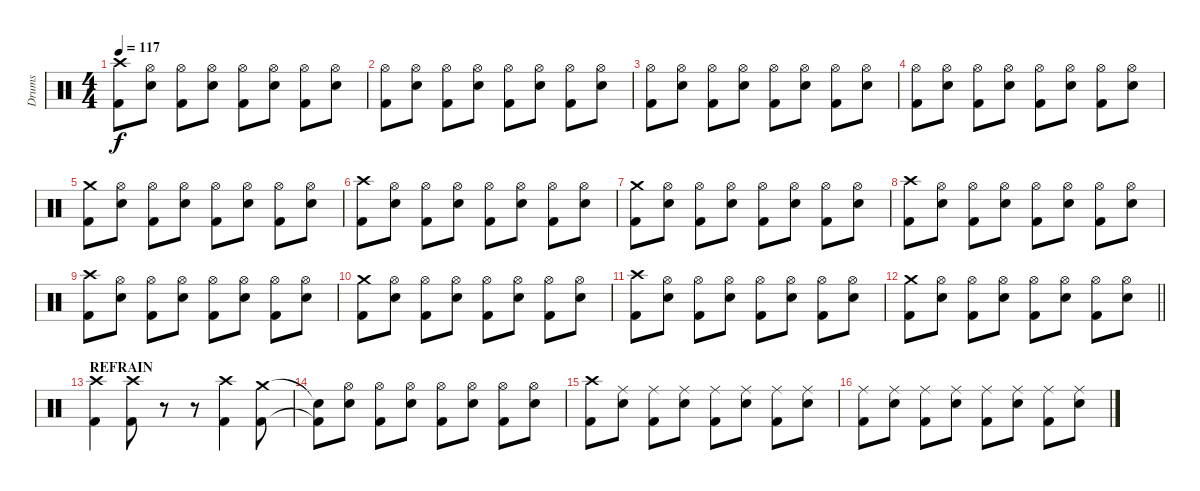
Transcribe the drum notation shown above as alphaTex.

\track ("Drums" "Drums") {instrument percussion}
\staff {score}
\articulation defaults
\ts (4 4)
\tempo 117
\clef neutral
\ks c
("Crash high (hit)" "Kick (hit) 2").8{dy f} ("Hi-Hat (open)" "Electric Snare (hit)").8 ("Hi-Hat (open)" "Kick (hit) 2").8 ("Hi-Hat (open)" "Electric Snare (hit)").8 ("Hi-Hat (open)" "Kick (hit) 2").8 ("Hi-Hat (open)" "Electric Snare (hit)").8 ("Hi-Hat (open)" "Kick (hit) 2").8 ("Hi-Hat (open)" "Electric Snare (hit)").8 |
("Hi-Hat (open)" "Kick (hit) 2").8 ("Hi-Hat (open)" "Electric Snare (hit)").8 ("Hi-Hat (open)" "Kick (hit) 2").8 ("Hi-Hat (open)" "Electric Snare (hit)").8 ("Hi-Hat (open)" "Kick (hit) 2").8 ("Hi-Hat (open)" "Electric Snare (hit)").8 ("Hi-Hat (open)" "Kick (hit) 2").8 ("Hi-Hat (open)" "Electric Snare (hit)").8 |
("Hi-Hat (open)" "Kick (hit) 2").8 ("Hi-Hat (open)" "Electric Snare (hit)").8 ("Hi-Hat (open)" "Kick (hit) 2").8 ("Hi-Hat (open)" "Electric Snare (hit)").8 ("Hi-Hat (open)" "Kick (hit) 2").8 ("Hi-Hat (open)" "Electric Snare (hit)").8 ("Hi-Hat (open)" "Kick (hit) 2").8 ("Hi-Hat (open)" "Electric Snare (hit)").8 |
("Hi-Hat (open)" "Kick (hit) 2").8 ("Hi-Hat (open)" "Electric Snare (hit)").8 ("Hi-Hat (open)" "Kick (hit) 2").8 ("Hi-Hat (open)" "Electric Snare (hit)").8 ("Hi-Hat (open)" "Kick (hit) 2").8 ("Hi-Hat (open)" "Electric Snare (hit)").8 ("Hi-Hat (open)" "Kick (hit) 2").8 ("Hi-Hat (open)" "Electric Snare (hit)").8 |
("Crash medium (hit)" "Kick (hit) 2").8 ("Hi-Hat (open)" "Electric Snare (hit)").8 ("Hi-Hat (open)" "Kick (hit) 2").8 ("Hi-Hat (open)" "Electric Snare (hit)").8 ("Hi-Hat (open)" "Kick (hit) 2").8 ("Hi-Hat (open)" "Electric Snare (hit)").8 ("Hi-Hat (open)" "Kick (hit) 2").8 ("Hi-Hat (open)" "Electric Snare (hit)").8 |
("Crash high (hit)" "Kick (hit) 2").8 ("Hi-Hat (open)" "Electric Snare (hit)").8 ("Hi-Hat (open)" "Kick (hit) 2").8 ("Hi-Hat (open)" "Electric Snare (hit)").8 ("Hi-Hat (open)" "Kick (hit) 2").8 ("Hi-Hat (open)" "Electric Snare (hit)").8 ("Hi-Hat (open)" "Kick (hit) 2").8 ("Hi-Hat (open)" "Electric Snare (hit)").8 |
("Crash medium (hit)" "Kick (hit) 2").8 ("Hi-Hat (open)" "Electric Snare (hit)").8 ("Hi-Hat (open)" "Kick (hit) 2").8 ("Hi-Hat (open)" "Electric Snare (hit)").8 ("Hi-Hat (open)" "Kick (hit) 2").8 ("Hi-Hat (open)" "Electric Snare (hit)").8 ("Hi-Hat (open)" "Kick (hit) 2").8 ("Hi-Hat (open)" "Electric Snare (hit)").8 |
("Crash high (hit)" "Kick (hit) 2").8 ("Hi-Hat (open)" "Electric Snare (hit)").8 ("Hi-Hat (open)" "Kick (hit) 2").8 ("Hi-Hat (open)" "Electric Snare (hit)").8 ("Hi-Hat (open)" "Kick (hit) 2").8 ("Hi-Hat (open)" "Electric Snare (hit)").8 ("Hi-Hat (open)" "Kick (hit) 2").8 ("Hi-Hat (open)" "Electric Snare (hit)").8 |
("Crash high (hit)" "Kick (hit) 2").8 ("Hi-Hat (open)" "Electric Snare (hit)").8 ("Hi-Hat (open)" "Kick (hit) 2").8 ("Hi-Hat (open)" "Electric Snare (hit)").8 ("Hi-Hat (open)" "Kick (hit) 2").8 ("Hi-Hat (open)" "Electric Snare (hit)").8 ("Hi-Hat (open)" "Kick (hit) 2").8 ("Hi-Hat (open)" "Electric Snare (hit)").8 |
("Crash medium (hit)" "Kick (hit) 2").8 ("Hi-Hat (open)" "Electric Snare (hit)").8 ("Hi-Hat (open)" "Kick (hit) 2").8 ("Hi-Hat (open)" "Electric Snare (hit)").8 ("Hi-Hat (open)" "Kick (hit) 2").8 ("Hi-Hat (open)" "Electric Snare (hit)").8 ("Hi-Hat (open)" "Kick (hit) 2").8 ("Hi-Hat (open)" "Electric Snare (hit)").8 |
("Crash high (hit)" "Kick (hit) 2").8 ("Hi-Hat (open)" "Electric Snare (hit)").8 ("Hi-Hat (open)" "Kick (hit) 2").8 ("Hi-Hat (open)" "Electric Snare (hit)").8 ("Hi-Hat (open)" "Kick (hit) 2").8 ("Hi-Hat (open)" "Electric Snare (hit)").8 ("Hi-Hat (open)" "Kick (hit) 2").8 ("Hi-Hat (open)" "Electric Snare (hit)").8 |
\barLineRight lightlight
("Crash medium (hit)" "Kick (hit) 2").8 ("Hi-Hat (open)" "Electric Snare (hit)").8 ("Hi-Hat (open)" "Kick (hit) 2").8 ("Hi-Hat (open)" "Electric Snare (hit)").8 ("Hi-Hat (open)" "Kick (hit) 2").8 ("Hi-Hat (open)" "Electric Snare (hit)").8 ("Hi-Hat (open)" "Kick (hit) 2").8 ("Hi-Hat (open)" "Electric Snare (hit)").8 |
\section ("" "REFRAIN")
("Crash high (hit)" "Kick (hit) 2").4 ("Crash high (hit)" "Kick (hit) 2").8 r.8 r.8 ("Crash high (hit)" "Kick (hit) 2").4 ("Crash medium (hit)" "Kick (hit) 2").8 |
("Snare (hit)"{t} "Kick (hit) 2"{t}).8 ("Hi-Hat (open)" "Electric Snare (hit)").8 ("Hi-Hat (open)" "Kick (hit) 2").8 ("Hi-Hat (open)" "Electric Snare (hit)").8 ("Hi-Hat (open)" "Kick (hit) 2").8 ("Hi-Hat (open)" "Electric Snare (hit)").8 ("Hi-Hat (open)" "Kick (hit) 2").8 ("Hi-Hat (open)" "Electric Snare (hit)").8 |
("Crash high (hit)" "Kick (hit) 2").8 ("Ride (middle)" "Electric Snare (hit)").8 ("Ride (middle)" "Kick (hit) 2").8 ("Ride (middle)" "Electric Snare (hit)").8 ("Ride (middle)" "Kick (hit) 2").8 ("Ride (middle)" "Electric Snare (hit)").8 ("Ride (middle)" "Kick (hit) 2").8 ("Ride (middle)" "Electric Snare (hit)").8 |
("Ride (middle)" "Kick (hit) 2").8 ("Ride (middle)" "Electric Snare (hit)").8 ("Ride (middle)" "Kick (hit) 2").8 ("Ride (middle)" "Electric Snare (hit)").8 ("Ride (middle)" "Kick (hit) 2").8 ("Ride (middle)" "Electric Snare (hit)").8 ("Ride (middle)" "Kick (hit) 2").8 ("Ride (middle)" "Electric Snare (hit)").8
